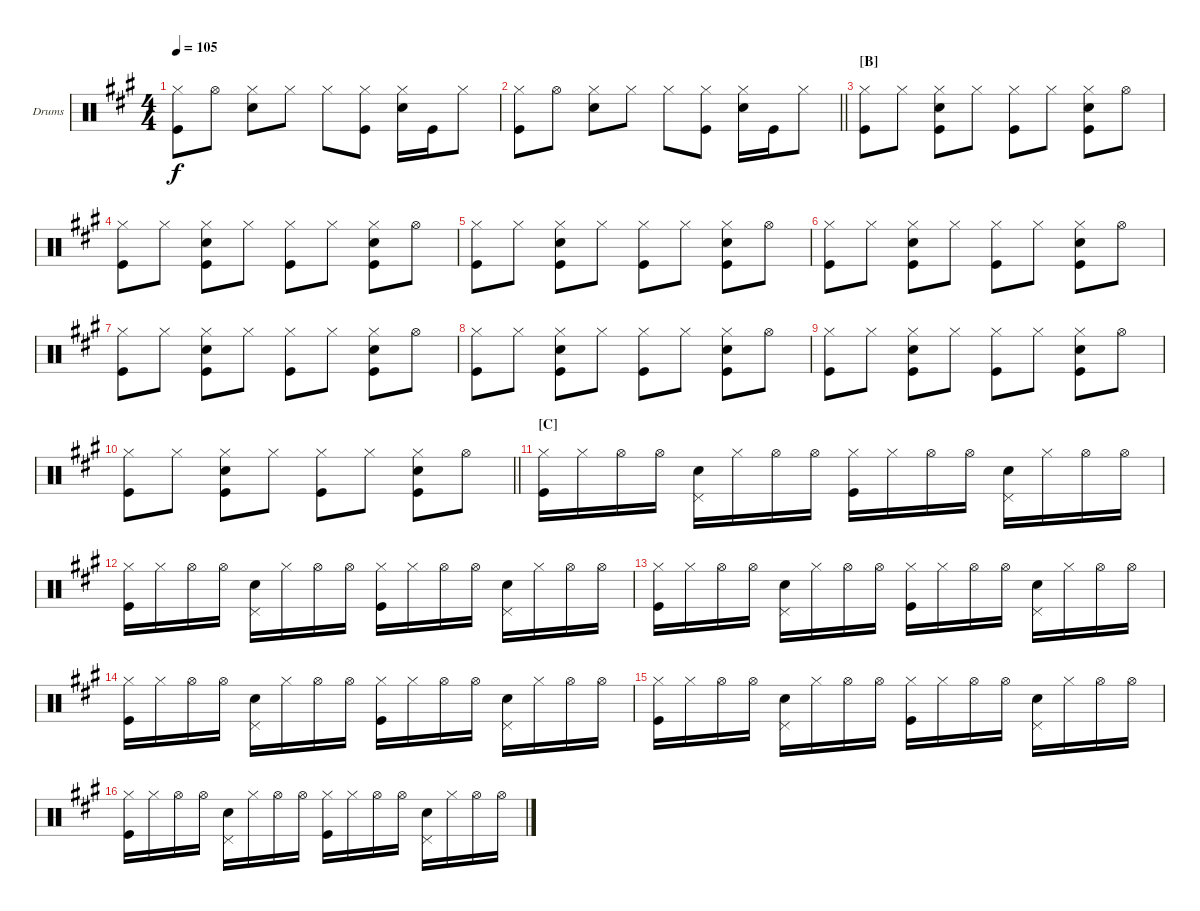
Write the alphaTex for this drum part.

\bracketExtendMode groupsimilarinstruments
\firstSystemTrackNameOrientation horizontal
\otherSystemsTrackNameOrientation horizontal
\track ("Fabrizio Moretti" "Drums") {instrument percussion}
\staff {score}
\articulation defaults
\ts (4 4)
\tempo 105
\clef neutral
\ks a
("Hi-Hat (closed)" "Kick (hit)").8{dy f} "Hi-Hat (open)".8 ("Hi-Hat (closed)" "Snare (hit) 2").8 "Hi-Hat (closed)".8 "Hi-Hat (closed)".8 ("Hi-Hat (closed)" "Kick (hit)").8 ("Hi-Hat (closed)" "Snare (hit) 2").16 "Kick (hit)".16 "Hi-Hat (closed)".8 |
\barLineRight lightlight
("Hi-Hat (closed)" "Kick (hit)").8 "Hi-Hat (open)".8 ("Hi-Hat (closed)" "Snare (hit) 2").8 "Hi-Hat (closed)".8 "Hi-Hat (closed)".8 ("Hi-Hat (closed)" "Kick (hit)").8 ("Hi-Hat (closed)" "Snare (hit) 2").16 "Kick (hit)".16 "Hi-Hat (closed)".8 |
\section ("B" "")
("Hi-Hat (closed)" "Kick (hit)").8 "Hi-Hat (closed)".8 ("Hi-Hat (closed)" "Snare (hit) 2" "Kick (hit)").8 "Hi-Hat (closed)".8 ("Hi-Hat (closed)" "Kick (hit)").8 "Hi-Hat (closed)".8 ("Hi-Hat (closed)" "Snare (hit) 2" "Kick (hit)").8 "Hi-Hat (open)".8 |
("Hi-Hat (closed)" "Kick (hit)").8 "Hi-Hat (closed)".8 ("Hi-Hat (closed)" "Snare (hit) 2" "Kick (hit)").8 "Hi-Hat (closed)".8 ("Hi-Hat (closed)" "Kick (hit)").8 "Hi-Hat (closed)".8 ("Hi-Hat (closed)" "Snare (hit) 2" "Kick (hit)").8 "Hi-Hat (open)".8 |
("Hi-Hat (closed)" "Kick (hit)").8 "Hi-Hat (closed)".8 ("Hi-Hat (closed)" "Snare (hit) 2" "Kick (hit)").8 "Hi-Hat (closed)".8 ("Hi-Hat (closed)" "Kick (hit)").8 "Hi-Hat (closed)".8 ("Hi-Hat (closed)" "Snare (hit) 2" "Kick (hit)").8 "Hi-Hat (open)".8 |
("Hi-Hat (closed)" "Kick (hit)").8 "Hi-Hat (closed)".8 ("Hi-Hat (closed)" "Snare (hit) 2" "Kick (hit)").8 "Hi-Hat (closed)".8 ("Hi-Hat (closed)" "Kick (hit)").8 "Hi-Hat (closed)".8 ("Hi-Hat (closed)" "Snare (hit) 2" "Kick (hit)").8 "Hi-Hat (open)".8 |
("Hi-Hat (closed)" "Kick (hit)").8 "Hi-Hat (closed)".8 ("Hi-Hat (closed)" "Snare (hit) 2" "Kick (hit)").8 "Hi-Hat (closed)".8 ("Hi-Hat (closed)" "Kick (hit)").8 "Hi-Hat (closed)".8 ("Hi-Hat (closed)" "Snare (hit) 2" "Kick (hit)").8 "Hi-Hat (open)".8 |
("Hi-Hat (closed)" "Kick (hit)").8 "Hi-Hat (closed)".8 ("Hi-Hat (closed)" "Snare (hit) 2" "Kick (hit)").8 "Hi-Hat (closed)".8 ("Hi-Hat (closed)" "Kick (hit)").8 "Hi-Hat (closed)".8 ("Hi-Hat (closed)" "Snare (hit) 2" "Kick (hit)").8 "Hi-Hat (open)".8 |
("Hi-Hat (closed)" "Kick (hit)").8 "Hi-Hat (closed)".8 ("Hi-Hat (closed)" "Snare (hit) 2" "Kick (hit)").8 "Hi-Hat (closed)".8 ("Hi-Hat (closed)" "Kick (hit)").8 "Hi-Hat (closed)".8 ("Hi-Hat (closed)" "Snare (hit) 2" "Kick (hit)").8 "Hi-Hat (open)".8 |
\barLineRight lightlight
("Hi-Hat (closed)" "Kick (hit)").8 "Hi-Hat (closed)".8 ("Hi-Hat (closed)" "Snare (hit) 2" "Kick (hit)").8 "Hi-Hat (closed)".8 ("Hi-Hat (closed)" "Kick (hit)").8 "Hi-Hat (closed)".8 ("Hi-Hat (closed)" "Snare (hit) 2" "Kick (hit)").8 "Hi-Hat (open)".8 |
\section ("C" "")
("Hi-Hat (closed)" "Kick (hit)").16 "Hi-Hat (closed)".16 "Hi-Hat (open)".16 "Hi-Hat (open)".16 ("Pedal Hi-Hat (hit)" "Snare (hit) 2").16 "Hi-Hat (closed)".16 "Hi-Hat (open)".16 "Hi-Hat (open)".16 ("Hi-Hat (closed)" "Kick (hit)").16 "Hi-Hat (closed)".16 "Hi-Hat (open)".16 "Hi-Hat (open)".16 ("Pedal Hi-Hat (hit)" "Snare (hit) 2").16 "Hi-Hat (closed)".16 "Hi-Hat (open)".16 "Hi-Hat (open)".16 |
("Hi-Hat (closed)" "Kick (hit)").16 "Hi-Hat (closed)".16 "Hi-Hat (open)".16 "Hi-Hat (open)".16 ("Pedal Hi-Hat (hit)" "Snare (hit) 2").16 "Hi-Hat (closed)".16 "Hi-Hat (open)".16 "Hi-Hat (open)".16 ("Hi-Hat (closed)" "Kick (hit)").16 "Hi-Hat (closed)".16 "Hi-Hat (open)".16 "Hi-Hat (open)".16 ("Pedal Hi-Hat (hit)" "Snare (hit) 2").16 "Hi-Hat (closed)".16 "Hi-Hat (open)".16 "Hi-Hat (open)".16 |
("Hi-Hat (closed)" "Kick (hit)").16 "Hi-Hat (closed)".16 "Hi-Hat (open)".16 "Hi-Hat (open)".16 ("Pedal Hi-Hat (hit)" "Snare (hit) 2").16 "Hi-Hat (closed)".16 "Hi-Hat (open)".16 "Hi-Hat (open)".16 ("Hi-Hat (closed)" "Kick (hit)").16 "Hi-Hat (closed)".16 "Hi-Hat (open)".16 "Hi-Hat (open)".16 ("Pedal Hi-Hat (hit)" "Snare (hit) 2").16 "Hi-Hat (closed)".16 "Hi-Hat (open)".16 "Hi-Hat (open)".16 |
("Hi-Hat (closed)" "Kick (hit)").16 "Hi-Hat (closed)".16 "Hi-Hat (open)".16 "Hi-Hat (open)".16 ("Pedal Hi-Hat (hit)" "Snare (hit) 2").16 "Hi-Hat (closed)".16 "Hi-Hat (open)".16 "Hi-Hat (open)".16 ("Hi-Hat (closed)" "Kick (hit)").16 "Hi-Hat (closed)".16 "Hi-Hat (open)".16 "Hi-Hat (open)".16 ("Pedal Hi-Hat (hit)" "Snare (hit) 2").16 "Hi-Hat (closed)".16 "Hi-Hat (open)".16 "Hi-Hat (open)".16 |
("Hi-Hat (closed)" "Kick (hit)").16 "Hi-Hat (closed)".16 "Hi-Hat (open)".16 "Hi-Hat (open)".16 ("Pedal Hi-Hat (hit)" "Snare (hit) 2").16 "Hi-Hat (closed)".16 "Hi-Hat (open)".16 "Hi-Hat (open)".16 ("Hi-Hat (closed)" "Kick (hit)").16 "Hi-Hat (closed)".16 "Hi-Hat (open)".16 "Hi-Hat (open)".16 ("Pedal Hi-Hat (hit)" "Snare (hit) 2").16 "Hi-Hat (closed)".16 "Hi-Hat (open)".16 "Hi-Hat (open)".16 |
("Hi-Hat (closed)" "Kick (hit)").16 "Hi-Hat (closed)".16 "Hi-Hat (open)".16 "Hi-Hat (open)".16 ("Pedal Hi-Hat (hit)" "Snare (hit) 2").16 "Hi-Hat (closed)".16 "Hi-Hat (open)".16 "Hi-Hat (open)".16 ("Hi-Hat (closed)" "Kick (hit)").16 "Hi-Hat (closed)".16 "Hi-Hat (open)".16 "Hi-Hat (open)".16 ("Pedal Hi-Hat (hit)" "Snare (hit) 2").16 "Hi-Hat (closed)".16 "Hi-Hat (open)".16 "Hi-Hat (open)".16
